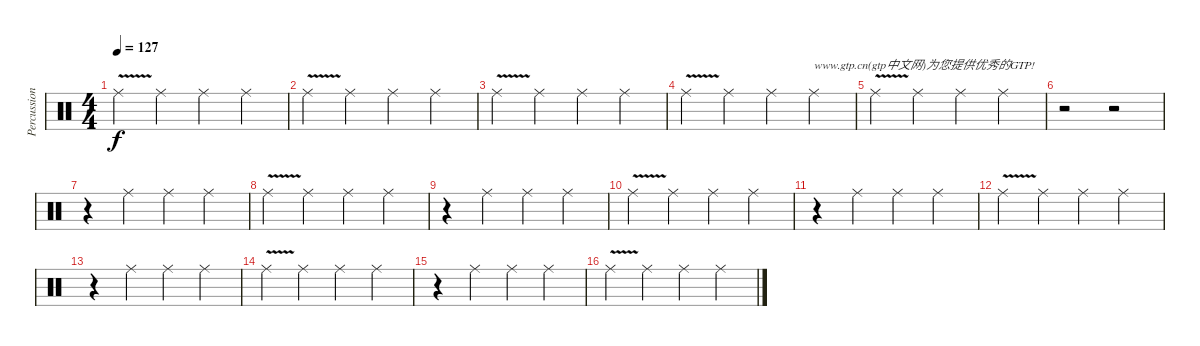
\track ("Percussion" "Percussion") {instrument percussion}
\staff {score}
\articulation defaults
\ts (4 4)
\tempo 127
\clef neutral
\ks c "Ride (middle)"{v}.4{dy f} "Ride (middle)".4 "Ride (middle)".4 "Ride (middle)".4
|
"Ride (middle)"{v}.4 "Ride (middle)".4 "Ride (middle)".4 "Ride (middle)".4 |
"Ride (middle)"{v}.4 "Ride (middle)".4 "Ride (middle)".4 "Ride (middle)".4 |
"Ride (middle)"{v}.4 "Ride (middle)".4 "Ride (middle)".4 "Ride (middle)".4{txt "www.gtp.cn(gtp中文网)为您提供优秀的GTP!"} |
"Ride (middle)"{v}.4 "Ride (middle)".4 "Ride (middle)".4 "Ride (middle)".4 |
r.2 r.2 |
r.4 "Ride (middle)".4 "Ride (middle)".4 "Ride (middle)".4 |
"Ride (middle)"{v}.4 "Ride (middle)".4 "Ride (middle)".4 "Ride (middle)".4 |
r.4 "Ride (middle)".4 "Ride (middle)".4 "Ride (middle)".4 |
"Ride (middle)"{v}.4 "Ride (middle)".4 "Ride (middle)".4 "Ride (middle)".4 |
r.4 "Ride (middle)".4 "Ride (middle)".4 "Ride (middle)".4 |
"Ride (middle)"{v}.4 "Ride (middle)".4 "Ride (middle)".4 "Ride (middle)".4 |
r.4 "Ride (middle)".4 "Ride (middle)".4 "Ride (middle)".4 |
"Ride (middle)"{v}.4 "Ride (middle)".4 "Ride (middle)".4 "Ride (middle)".4 |
r.4 "Ride (middle)".4 "Ride (middle)".4 "Ride (middle)".4 |
"Ride (middle)"{v}.4 "Ride (middle)".4 "Ride (middle)".4 "Ride (middle)".4
